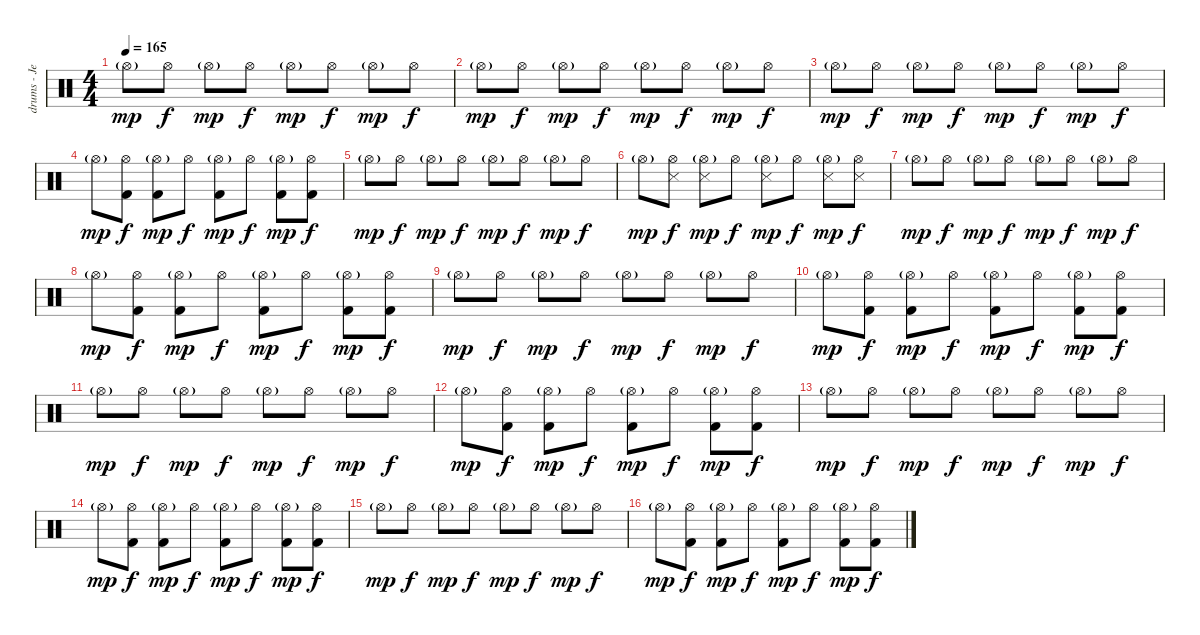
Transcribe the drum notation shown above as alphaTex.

\track ("drums - Jeff" "drums - Je") {instrument percussion}
\staff {score}
\articulation defaults
\ts (4 4)
\tempo 165
\clef neutral
\ks c "Hi-Hat (open)"{g}.8{dy mp} "Hi-Hat (open)".8{dy f} "Hi-Hat (open)"{g}.8{dy mp} "Hi-Hat (open)".8{dy f} "Hi-Hat (open)"{g}.8{dy mp} "Hi-Hat (open)".8{dy f} "Hi-Hat (open)"{g}.8{dy mp} "Hi-Hat (open)".8{dy f}
|
"Hi-Hat (open)"{g}.8{dy mp} "Hi-Hat (open)".8{dy f} "Hi-Hat (open)"{g}.8{dy mp} "Hi-Hat (open)".8{dy f} "Hi-Hat (open)"{g}.8{dy mp} "Hi-Hat (open)".8{dy f} "Hi-Hat (open)"{g}.8{dy mp} "Hi-Hat (open)".8{dy f} |
"Hi-Hat (open)"{g}.8{dy mp} "Hi-Hat (open)".8{dy f} "Hi-Hat (open)"{g}.8{dy mp} "Hi-Hat (open)".8{dy f} "Hi-Hat (open)"{g}.8{dy mp} "Hi-Hat (open)".8{dy f} "Hi-Hat (open)"{g}.8{dy mp} "Hi-Hat (open)".8{dy f} |
"Hi-Hat (open)"{g}.8{dy mp} ("Hi-Hat (open)" "Kick (hit) 2").8{dy f} ("Hi-Hat (open)"{g} "Kick (hit) 2").8{dy mp} "Hi-Hat (open)".8{dy f} ("Hi-Hat (open)"{g} "Kick (hit) 2").8{dy mp} "Hi-Hat (open)".8{dy f} ("Hi-Hat (open)"{g} "Kick (hit) 2").8{dy mp} ("Hi-Hat (open)" "Kick (hit) 2").8{dy f} |
"Hi-Hat (open)"{g}.8{dy mp} "Hi-Hat (open)".8{dy f} "Hi-Hat (open)"{g}.8{dy mp} "Hi-Hat (open)".8{dy f} "Hi-Hat (open)"{g}.8{dy mp} "Hi-Hat (open)".8{dy f} "Hi-Hat (open)"{g}.8{dy mp} "Hi-Hat (open)".8{dy f} |
"Hi-Hat (open)"{g}.8{dy mp} ("Hi-Hat (open)" "Snare (side stick) 3").8{dy f} ("Hi-Hat (open)"{g} "Snare (side stick) 3").8{dy mp} "Hi-Hat (open)".8{dy f} ("Hi-Hat (open)"{g} "Snare (side stick) 3").8{dy mp} "Hi-Hat (open)".8{dy f} ("Hi-Hat (open)"{g} "Snare (side stick) 3").8{dy mp} ("Hi-Hat (open)" "Snare (side stick) 3").8{dy f} |
"Hi-Hat (open)"{g}.8{dy mp} "Hi-Hat (open)".8{dy f} "Hi-Hat (open)"{g}.8{dy mp} "Hi-Hat (open)".8{dy f} "Hi-Hat (open)"{g}.8{dy mp} "Hi-Hat (open)".8{dy f} "Hi-Hat (open)"{g}.8{dy mp} "Hi-Hat (open)".8{dy f} |
"Hi-Hat (open)"{g}.8{dy mp} ("Hi-Hat (open)" "Kick (hit) 2").8{dy f} ("Hi-Hat (open)"{g} "Kick (hit) 2").8{dy mp} "Hi-Hat (open)".8{dy f} ("Hi-Hat (open)"{g} "Kick (hit) 2").8{dy mp} "Hi-Hat (open)".8{dy f} ("Hi-Hat (open)"{g} "Kick (hit) 2").8{dy mp} ("Hi-Hat (open)" "Kick (hit) 2").8{dy f} |
"Hi-Hat (open)"{g}.8{dy mp} "Hi-Hat (open)".8{dy f} "Hi-Hat (open)"{g}.8{dy mp} "Hi-Hat (open)".8{dy f} "Hi-Hat (open)"{g}.8{dy mp} "Hi-Hat (open)".8{dy f} "Hi-Hat (open)"{g}.8{dy mp} "Hi-Hat (open)".8{dy f} |
"Hi-Hat (open)"{g}.8{dy mp} ("Hi-Hat (open)" "Kick (hit) 2").8{dy f} ("Hi-Hat (open)"{g} "Kick (hit) 2").8{dy mp} "Hi-Hat (open)".8{dy f} ("Hi-Hat (open)"{g} "Kick (hit) 2").8{dy mp} "Hi-Hat (open)".8{dy f} ("Hi-Hat (open)"{g} "Kick (hit) 2").8{dy mp} ("Hi-Hat (open)" "Kick (hit) 2").8{dy f} |
"Hi-Hat (open)"{g}.8{dy mp} "Hi-Hat (open)".8{dy f} "Hi-Hat (open)"{g}.8{dy mp} "Hi-Hat (open)".8{dy f} "Hi-Hat (open)"{g}.8{dy mp} "Hi-Hat (open)".8{dy f} "Hi-Hat (open)"{g}.8{dy mp} "Hi-Hat (open)".8{dy f} |
"Hi-Hat (open)"{g}.8{dy mp} ("Hi-Hat (open)" "Kick (hit) 2").8{dy f} ("Hi-Hat (open)"{g} "Kick (hit) 2").8{dy mp} "Hi-Hat (open)".8{dy f} ("Hi-Hat (open)"{g} "Kick (hit) 2").8{dy mp} "Hi-Hat (open)".8{dy f} ("Hi-Hat (open)"{g} "Kick (hit) 2").8{dy mp} ("Hi-Hat (open)" "Kick (hit) 2").8{dy f} |
"Hi-Hat (open)"{g}.8{dy mp} "Hi-Hat (open)".8{dy f} "Hi-Hat (open)"{g}.8{dy mp} "Hi-Hat (open)".8{dy f} "Hi-Hat (open)"{g}.8{dy mp} "Hi-Hat (open)".8{dy f} "Hi-Hat (open)"{g}.8{dy mp} "Hi-Hat (open)".8{dy f} |
"Hi-Hat (open)"{g}.8{dy mp} ("Hi-Hat (open)" "Kick (hit) 2").8{dy f} ("Hi-Hat (open)"{g} "Kick (hit) 2").8{dy mp} "Hi-Hat (open)".8{dy f} ("Hi-Hat (open)"{g} "Kick (hit) 2").8{dy mp} "Hi-Hat (open)".8{dy f} ("Hi-Hat (open)"{g} "Kick (hit) 2").8{dy mp} ("Hi-Hat (open)" "Kick (hit) 2").8{dy f} |
"Hi-Hat (open)"{g}.8{dy mp} "Hi-Hat (open)".8{dy f} "Hi-Hat (open)"{g}.8{dy mp} "Hi-Hat (open)".8{dy f} "Hi-Hat (open)"{g}.8{dy mp} "Hi-Hat (open)".8{dy f} "Hi-Hat (open)"{g}.8{dy mp} "Hi-Hat (open)".8{dy f} |
"Hi-Hat (open)"{g}.8{dy mp} ("Hi-Hat (open)" "Kick (hit) 2").8{dy f} ("Hi-Hat (open)"{g} "Kick (hit) 2").8{dy mp} "Hi-Hat (open)".8{dy f} ("Hi-Hat (open)"{g} "Kick (hit) 2").8{dy mp} "Hi-Hat (open)".8{dy f} ("Hi-Hat (open)"{g} "Kick (hit) 2").8{dy mp} ("Hi-Hat (open)" "Kick (hit) 2").8{dy f}
